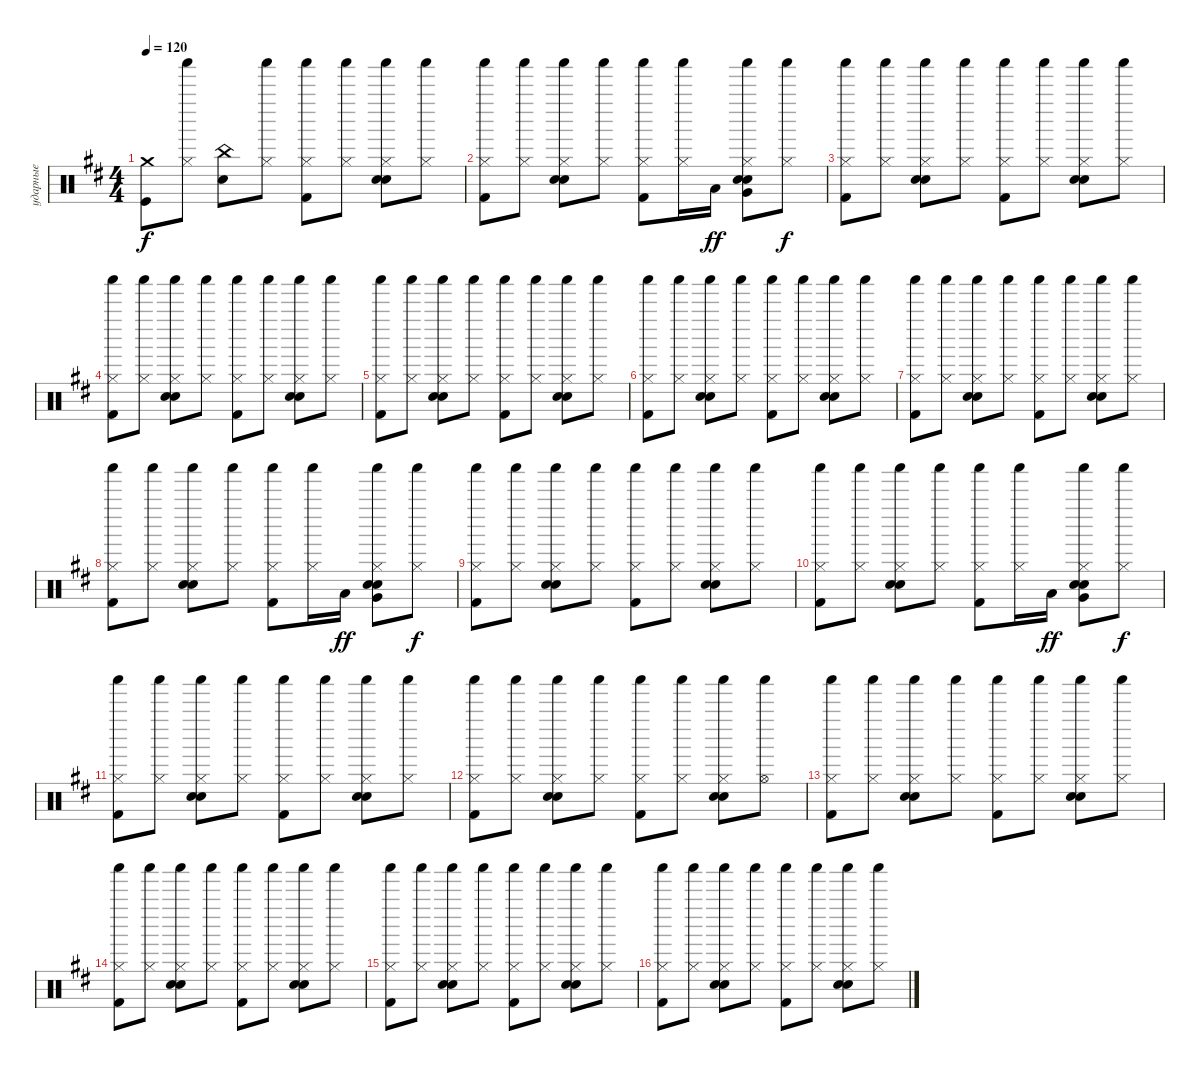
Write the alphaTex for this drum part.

\track ("ударные" "ударные") {instrument percussion}
\staff {score}
\articulation defaults
\ts (4 4)
\tempo 120
\clef neutral
\ks bminor
("Kick (hit)" "Crash medium (hit)").8{dy f} ("Hi-Hat (closed)" "Shaker (hit)").8 ("Snare (hit) 2" "China (hit)").8 ("Hi-Hat (closed)" "Shaker (hit)").8 ("Hi-Hat (closed)" "Shaker (hit)" "Kick (hit) 2").8 ("Hi-Hat (closed)" "Shaker (hit)").8 ("Hi-Hat (closed)" "Shaker (hit)" "Hand Clap (hit)" "Snare (hit) 2").8 ("Hi-Hat (closed)" "Shaker (hit)").8 |
("Hi-Hat (closed)" "Shaker (hit)" "Kick (hit) 2").8 ("Hi-Hat (closed)" "Shaker (hit)").8 ("Hi-Hat (closed)" "Shaker (hit)" "Hand Clap (hit)" "Snare (hit) 2").8 ("Hi-Hat (closed)" "Shaker (hit)").8 ("Hi-Hat (closed)" "Shaker (hit)" "Kick (hit) 2").8 ("Hi-Hat (closed)" "Shaker (hit)").16 "Low Tom (hit)".16{dy ff} ("Hand Clap (hit)" "Electric Snare (hit)" "Hi-Hat (closed)" "Very Low Tom (hit)" "Shaker (hit)").8 ("Hi-Hat (closed)" "Shaker (hit)").8{dy f} |
("Hi-Hat (closed)" "Shaker (hit)" "Kick (hit) 2").8 ("Hi-Hat (closed)" "Shaker (hit)").8 ("Hi-Hat (closed)" "Shaker (hit)" "Hand Clap (hit)" "Snare (hit) 2").8 ("Hi-Hat (closed)" "Shaker (hit)").8 ("Hi-Hat (closed)" "Shaker (hit)" "Kick (hit) 2").8 ("Hi-Hat (closed)" "Shaker (hit)").8 ("Hi-Hat (closed)" "Shaker (hit)" "Hand Clap (hit)" "Snare (hit) 2").8 ("Hi-Hat (closed)" "Shaker (hit)").8 |
("Hi-Hat (closed)" "Shaker (hit)" "Kick (hit) 2").8 ("Hi-Hat (closed)" "Shaker (hit)").8 ("Hi-Hat (closed)" "Shaker (hit)" "Hand Clap (hit)" "Snare (hit) 2").8 ("Hi-Hat (closed)" "Shaker (hit)").8 ("Hi-Hat (closed)" "Shaker (hit)" "Kick (hit) 2").8 ("Hi-Hat (closed)" "Shaker (hit)").8 ("Hi-Hat (closed)" "Shaker (hit)" "Hand Clap (hit)" "Snare (hit) 2").8 ("Hi-Hat (closed)" "Shaker (hit)").8 |
("Hi-Hat (closed)" "Shaker (hit)" "Kick (hit) 2").8 ("Hi-Hat (closed)" "Shaker (hit)").8 ("Hi-Hat (closed)" "Shaker (hit)" "Hand Clap (hit)" "Snare (hit) 2").8 ("Hi-Hat (closed)" "Shaker (hit)").8 ("Hi-Hat (closed)" "Shaker (hit)" "Kick (hit) 2").8 ("Hi-Hat (closed)" "Shaker (hit)").8 ("Hi-Hat (closed)" "Shaker (hit)" "Hand Clap (hit)" "Snare (hit) 2").8 ("Hi-Hat (closed)" "Shaker (hit)").8 |
("Hi-Hat (closed)" "Shaker (hit)" "Kick (hit) 2").8 ("Hi-Hat (closed)" "Shaker (hit)").8 ("Hi-Hat (closed)" "Shaker (hit)" "Hand Clap (hit)" "Snare (hit) 2").8 ("Hi-Hat (closed)" "Shaker (hit)").8 ("Hi-Hat (closed)" "Shaker (hit)" "Kick (hit) 2").8 ("Hi-Hat (closed)" "Shaker (hit)").8 ("Hi-Hat (closed)" "Shaker (hit)" "Hand Clap (hit)" "Snare (hit) 2").8 ("Hi-Hat (closed)" "Shaker (hit)").8 |
("Hi-Hat (closed)" "Shaker (hit)" "Kick (hit) 2").8 ("Hi-Hat (closed)" "Shaker (hit)").8 ("Hi-Hat (closed)" "Shaker (hit)" "Hand Clap (hit)" "Snare (hit) 2").8 ("Hi-Hat (closed)" "Shaker (hit)").8 ("Hi-Hat (closed)" "Shaker (hit)" "Kick (hit) 2").8 ("Hi-Hat (closed)" "Shaker (hit)").8 ("Hi-Hat (closed)" "Shaker (hit)" "Hand Clap (hit)" "Snare (hit) 2").8 ("Hi-Hat (closed)" "Shaker (hit)").8 |
("Hi-Hat (closed)" "Shaker (hit)" "Kick (hit) 2").8 ("Hi-Hat (closed)" "Shaker (hit)").8 ("Hi-Hat (closed)" "Shaker (hit)" "Hand Clap (hit)" "Snare (hit) 2").8 ("Hi-Hat (closed)" "Shaker (hit)").8 ("Hi-Hat (closed)" "Shaker (hit)" "Kick (hit) 2").8 ("Hi-Hat (closed)" "Shaker (hit)").16 "Low Tom (hit)".16{dy ff} ("Hand Clap (hit)" "Electric Snare (hit)" "Hi-Hat (closed)" "Very Low Tom (hit)" "Shaker (hit)").8 ("Hi-Hat (closed)" "Shaker (hit)").8{dy f} |
("Hi-Hat (closed)" "Shaker (hit)" "Kick (hit) 2").8 ("Hi-Hat (closed)" "Shaker (hit)").8 ("Hi-Hat (closed)" "Shaker (hit)" "Hand Clap (hit)" "Snare (hit) 2").8 ("Hi-Hat (closed)" "Shaker (hit)").8 ("Hi-Hat (closed)" "Shaker (hit)" "Kick (hit) 2").8 ("Hi-Hat (closed)" "Shaker (hit)").8 ("Hi-Hat (closed)" "Shaker (hit)" "Hand Clap (hit)" "Snare (hit) 2").8 ("Hi-Hat (closed)" "Shaker (hit)").8 |
("Hi-Hat (closed)" "Shaker (hit)" "Kick (hit) 2").8 ("Hi-Hat (closed)" "Shaker (hit)").8 ("Hi-Hat (closed)" "Shaker (hit)" "Hand Clap (hit)" "Snare (hit) 2").8 ("Hi-Hat (closed)" "Shaker (hit)").8 ("Hi-Hat (closed)" "Shaker (hit)" "Kick (hit) 2").8 ("Hi-Hat (closed)" "Shaker (hit)").16 "Low Tom (hit)".16{dy ff} ("Hand Clap (hit)" "Electric Snare (hit)" "Hi-Hat (closed)" "Very Low Tom (hit)" "Shaker (hit)").8 ("Hi-Hat (closed)" "Shaker (hit)").8{dy f} |
("Hi-Hat (closed)" "Shaker (hit)" "Kick (hit) 2").8 ("Hi-Hat (closed)" "Shaker (hit)").8 ("Hi-Hat (closed)" "Shaker (hit)" "Hand Clap (hit)" "Snare (hit) 2").8 ("Hi-Hat (closed)" "Shaker (hit)").8 ("Hi-Hat (closed)" "Shaker (hit)" "Kick (hit) 2").8 ("Hi-Hat (closed)" "Shaker (hit)").8 ("Hi-Hat (closed)" "Shaker (hit)" "Hand Clap (hit)" "Snare (hit) 2").8 ("Hi-Hat (closed)" "Shaker (hit)").8 |
("Hi-Hat (closed)" "Shaker (hit)" "Kick (hit) 2").8 ("Hi-Hat (closed)" "Shaker (hit)").8 ("Hi-Hat (closed)" "Shaker (hit)" "Hand Clap (hit)" "Snare (hit) 2").8 ("Hi-Hat (closed)" "Shaker (hit)").8 ("Hi-Hat (closed)" "Shaker (hit)" "Kick (hit) 2").8 ("Hi-Hat (closed)" "Shaker (hit)").8 ("Hi-Hat (closed)" "Shaker (hit)" "Hand Clap (hit)" "Snare (hit) 2").8 ("Shaker (hit)" "Hi-Hat (open)").8 |
("Hi-Hat (closed)" "Shaker (hit)" "Kick (hit) 2").8 ("Hi-Hat (closed)" "Shaker (hit)").8 ("Hi-Hat (closed)" "Shaker (hit)" "Hand Clap (hit)" "Snare (hit) 2").8 ("Hi-Hat (closed)" "Shaker (hit)").8 ("Hi-Hat (closed)" "Shaker (hit)" "Kick (hit) 2").8 ("Hi-Hat (closed)" "Shaker (hit)").8 ("Hi-Hat (closed)" "Shaker (hit)" "Hand Clap (hit)" "Snare (hit) 2").8 ("Hi-Hat (closed)" "Shaker (hit)").8 |
("Hi-Hat (closed)" "Shaker (hit)" "Kick (hit) 2").8 ("Hi-Hat (closed)" "Shaker (hit)").8 ("Hi-Hat (closed)" "Shaker (hit)" "Hand Clap (hit)" "Snare (hit) 2").8 ("Hi-Hat (closed)" "Shaker (hit)").8 ("Hi-Hat (closed)" "Shaker (hit)" "Kick (hit) 2").8 ("Hi-Hat (closed)" "Shaker (hit)").8 ("Hi-Hat (closed)" "Shaker (hit)" "Hand Clap (hit)" "Snare (hit) 2").8 ("Hi-Hat (closed)" "Shaker (hit)").8 |
("Hi-Hat (closed)" "Shaker (hit)" "Kick (hit) 2").8 ("Hi-Hat (closed)" "Shaker (hit)").8 ("Hi-Hat (closed)" "Shaker (hit)" "Hand Clap (hit)" "Snare (hit) 2").8 ("Hi-Hat (closed)" "Shaker (hit)").8 ("Hi-Hat (closed)" "Shaker (hit)" "Kick (hit) 2").8 ("Hi-Hat (closed)" "Shaker (hit)").8 ("Hi-Hat (closed)" "Shaker (hit)" "Hand Clap (hit)" "Snare (hit) 2").8 ("Hi-Hat (closed)" "Shaker (hit)").8 |
("Hi-Hat (closed)" "Shaker (hit)" "Kick (hit) 2").8 ("Hi-Hat (closed)" "Shaker (hit)").8 ("Hi-Hat (closed)" "Shaker (hit)" "Hand Clap (hit)" "Snare (hit) 2").8 ("Hi-Hat (closed)" "Shaker (hit)").8 ("Hi-Hat (closed)" "Shaker (hit)" "Kick (hit) 2").8 ("Hi-Hat (closed)" "Shaker (hit)").8 ("Hi-Hat (closed)" "Shaker (hit)" "Hand Clap (hit)" "Snare (hit) 2").8 ("Hi-Hat (closed)" "Shaker (hit)").8
